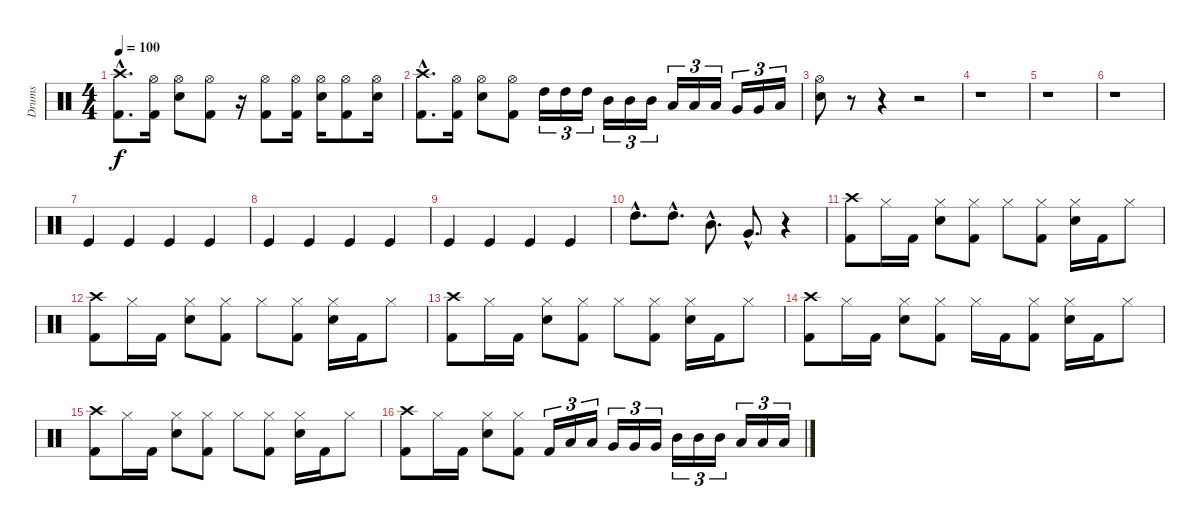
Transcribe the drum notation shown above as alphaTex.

\track ("Drums" "Drums") {instrument percussion}
\staff {score}
\articulation defaults
\ts (4 4)
\tempo 100
\clef neutral
\ks c
("Crash high (hit)"{hac} "Kick (hit) 2"{hac}).8{d dy f} ("Hi-Hat (open)" "Kick (hit) 2").16 ("Hi-Hat (open)" "Electric Snare (hit)").8 ("Hi-Hat (open)" "Kick (hit) 2").8 r.16 ("Hi-Hat (open)" "Kick (hit) 2").8 ("Hi-Hat (open)" "Kick (hit) 2").16 ("Hi-Hat (open)" "Electric Snare (hit)").16 ("Hi-Hat (open)" "Kick (hit) 2").8 ("Hi-Hat (open)" "Electric Snare (hit)").16 |
("Crash high (hit)"{hac} "Kick (hit) 2"{hac}).8{d} ("Hi-Hat (open)" "Kick (hit) 2").16 ("Hi-Hat (open)" "Electric Snare (hit)").8 ("Hi-Hat (open)" "Kick (hit) 2").8 "High Tom (hit)".16{tu (3 2)} "High Tom (hit)".16{tu (3 2)} "High Tom (hit)".16{tu (3 2)} "Mid Tom (hit)".16{tu (3 2)} "Mid Tom (hit)".16{tu (3 2)} "Mid Tom (hit)".16{tu (3 2)} "Low Tom (hit)".16{tu (3 2)} "Low Tom (hit)".16{tu (3 2)} "Low Tom (hit)".16{tu (3 2)} "Very Low Tom (hit)".16{tu (3 2)} "Very Low Tom (hit)".16{tu (3 2)} "Low Floor Tom (hit)".16{tu (3 2)} |
("Hi-Hat (open)" "Electric Snare (hit)").8 r.8 r.4 r.2 |
r.1 |
r.1 |
r.1 |
"Kick (hit)".4 "Kick (hit)".4 "Kick (hit)".4 "Kick (hit)".4 |
"Kick (hit)".4 "Kick (hit)".4 "Kick (hit)".4 "Kick (hit)".4 |
"Kick (hit)".4 "Kick (hit)".4 "Kick (hit)".4 "Kick (hit)".4 |
"High Tom (hit)"{hac}.8{d} "High Tom (hit)"{hac}.8{d} "Mid Tom (hit)"{hac}.8{d} "Very Low Tom (hit)"{hac}.8{d} r.4 |
("Crash high (hit)" "Kick (hit) 2").8 "Hi-Hat (closed)".16 "Kick (hit) 2".16 ("Hi-Hat (closed)" "Electric Snare (hit)").8 ("Hi-Hat (closed)" "Kick (hit) 2").8 "Hi-Hat (closed)".8 ("Hi-Hat (closed)" "Kick (hit) 2").8 ("Hi-Hat (closed)" "Electric Snare (hit)").16 "Kick (hit) 2".16 "Hi-Hat (closed)".8 |
("Crash high (hit)" "Kick (hit) 2").8 "Hi-Hat (closed)".16 "Kick (hit) 2".16 ("Hi-Hat (closed)" "Electric Snare (hit)").8 ("Hi-Hat (closed)" "Kick (hit) 2").8 "Hi-Hat (closed)".8 ("Hi-Hat (closed)" "Kick (hit) 2").8 ("Hi-Hat (closed)" "Electric Snare (hit)").16 "Kick (hit) 2".16 "Hi-Hat (closed)".8 |
("Crash high (hit)" "Kick (hit) 2").8 "Hi-Hat (closed)".16 "Kick (hit) 2".16 ("Hi-Hat (closed)" "Electric Snare (hit)").8 ("Hi-Hat (closed)" "Kick (hit) 2").8 "Hi-Hat (closed)".8 ("Hi-Hat (closed)" "Kick (hit) 2").8 ("Hi-Hat (closed)" "Electric Snare (hit)").16 "Kick (hit) 2".16 "Hi-Hat (closed)".8 |
("Crash high (hit)" "Kick (hit) 2").8 "Hi-Hat (closed)".16 "Kick (hit) 2".16 ("Hi-Hat (closed)" "Electric Snare (hit)").8 ("Hi-Hat (closed)" "Kick (hit) 2").8 "Hi-Hat (closed)".16 "Kick (hit) 2".16 ("Hi-Hat (closed)" "Kick (hit) 2").8 ("Hi-Hat (closed)" "Electric Snare (hit)").16 "Kick (hit) 2".16 "Hi-Hat (closed)".8 |
("Crash high (hit)" "Kick (hit) 2").8 "Hi-Hat (closed)".16 "Kick (hit) 2".16 ("Hi-Hat (closed)" "Electric Snare (hit)").8 ("Hi-Hat (closed)" "Kick (hit) 2").8 "Hi-Hat (closed)".8 ("Hi-Hat (closed)" "Kick (hit) 2").8 ("Hi-Hat (closed)" "Electric Snare (hit)").16 "Kick (hit) 2".16 "Hi-Hat (closed)".8 |
("Crash high (hit)" "Kick (hit) 2").8 "Hi-Hat (closed)".16 "Kick (hit) 2".16 ("Hi-Hat (closed)" "Electric Snare (hit)").8 ("Hi-Hat (closed)" "Kick (hit) 2").8 "Kick (hit) 2".16{tu (3 2)} "Low Tom (hit)".16{tu (3 2)} "Low Tom (hit)".16{tu (3 2)} "Very Low Tom (hit)".16{tu (3 2)} "Very Low Tom (hit)".16{tu (3 2)} "Very Low Tom (hit)".16{tu (3 2)} "Mid Tom (hit)".16{tu (3 2)} "Mid Tom (hit)".16{tu (3 2)} "Mid Tom (hit)".16{tu (3 2)} "Low Tom (hit)".16{tu (3 2)} "Low Tom (hit)".16{tu (3 2)} "Low Tom (hit)".16{tu (3 2)}
